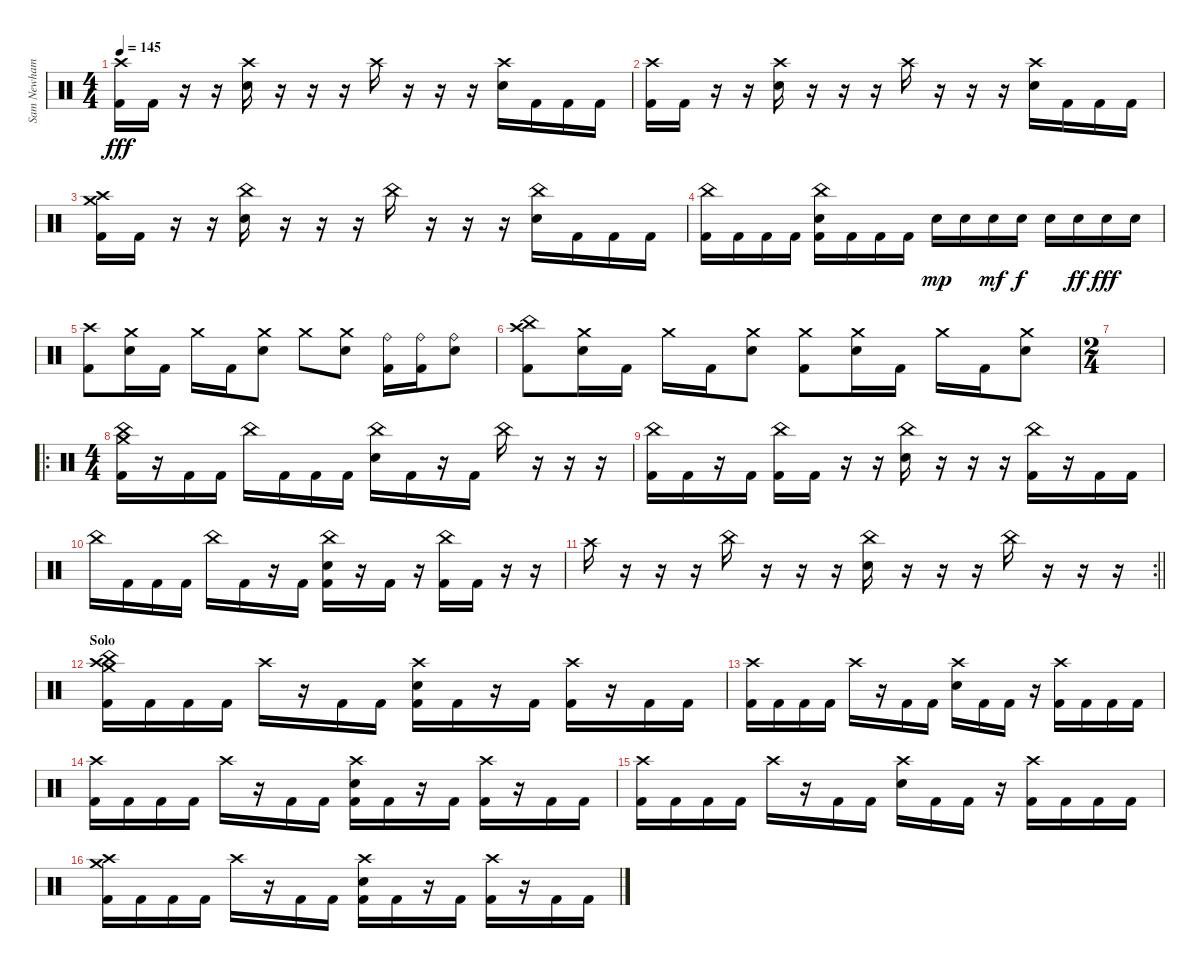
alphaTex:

\track ("Sam Newham" "Sam Newham") {instrument percussion}
\staff {score}
\articulation defaults
\ts (4 4)
\tempo 145
\clef neutral
\ks c
("Crash high (hit)" "Kick (hit) 2").16{dy fff} "Kick (hit) 2".16 r.16 r.16 ("Crash high (hit)" "Electric Snare (hit)").16 r.16 r.16 r.16 "Crash high (hit)".16 r.16 r.16 r.16 ("Crash high (hit)" "Electric Snare (hit)").16 "Kick (hit) 2".16 "Kick (hit) 2".16 "Kick (hit) 2".16 |
("Crash high (hit)" "Kick (hit) 2").16 "Kick (hit) 2".16 r.16 r.16 ("Crash high (hit)" "Electric Snare (hit)").16 r.16 r.16 r.16 "Crash high (hit)".16 r.16 r.16 r.16 ("Crash high (hit)" "Electric Snare (hit)").16 "Kick (hit) 2".16 "Kick (hit) 2".16 "Kick (hit) 2".16 |
("Crash medium (hit)" "Crash high (hit)" "Kick (hit) 2").16 "Kick (hit) 2".16 r.16 r.16 ("China (hit)" "Electric Snare (hit)").16 r.16 r.16 r.16 "China (hit)".16 r.16 r.16 r.16 ("China (hit)" "Electric Snare (hit)").16 "Kick (hit) 2".16 "Kick (hit) 2".16 "Kick (hit) 2".16 |
("China (hit)" "Kick (hit) 2").16 "Kick (hit) 2".16 "Kick (hit) 2".16 "Kick (hit) 2".16 ("China (hit)" "Electric Snare (hit)" "Kick (hit) 2").16 "Kick (hit) 2".16 "Kick (hit) 2".16 "Kick (hit) 2".16 "Electric Snare (hit)".16{dy mp} "Electric Snare (hit)".16 "Electric Snare (hit)".16{dy mf} "Electric Snare (hit)".16{dy f} "Electric Snare (hit)".16 "Electric Snare (hit)".16{dy ff} "Electric Snare (hit)".16{dy fff} "Electric Snare (hit)".16 |
("Crash high (hit)" "Kick (hit) 2").8 ("Crash medium (hit)" "Electric Snare (hit)").16 "Kick (hit) 2".16 "Crash medium (hit)".16 "Kick (hit) 2".16 ("Crash medium (hit)" "Electric Snare (hit)").8 "Crash medium (hit)".8 ("Crash medium (hit)" "Electric Snare (hit)").8 ("Ride (bell)" "Kick (hit) 2").16 ("Ride (bell)" "Kick (hit) 2").16 ("Ride (bell)" "Electric Snare (hit)").8 |
("China (hit)" "Crash high (hit)" "Kick (hit) 2").8 ("Crash medium (hit)" "Electric Snare (hit)").16 "Kick (hit) 2".16 "Crash medium (hit)".16 "Kick (hit) 2".16 ("Crash medium (hit)" "Electric Snare (hit)").8 ("Crash medium (hit)" "Kick (hit) 2").8 ("Crash medium (hit)" "Electric Snare (hit)").16 "Kick (hit) 2".16 "Crash medium (hit)".16 "Kick (hit) 2".16 ("Crash medium (hit)" "Electric Snare (hit)").8 |
\ts (2 4)
|
\ro
\ts (4 4)
("Crash medium (hit)" "China (hit)" "Kick (hit) 2").16 r.16 "Kick (hit) 2".16 "Kick (hit) 2".16 "China (hit)".16 "Kick (hit) 2".16 "Kick (hit) 2".16 "Kick (hit) 2".16 ("China (hit)" "Electric Snare (hit)").16 "Kick (hit) 2".16 r.16 "Kick (hit) 2".16 "China (hit)".16 r.16 r.16 r.16 |
("China (hit)" "Kick (hit) 2").16 "Kick (hit) 2".16 r.16 "Kick (hit) 2".16 ("China (hit)" "Kick (hit) 2").16 "Kick (hit) 2".16 r.16 r.16 ("China (hit)" "Electric Snare (hit)").16 r.16 r.16 r.16 ("China (hit)" "Kick (hit) 2").16 r.16 "Kick (hit) 2".16 "Kick (hit) 2".16 |
"China (hit)".16 "Kick (hit) 2".16 "Kick (hit) 2".16 "Kick (hit) 2".16 "China (hit)".16 "Kick (hit) 2".16 r.16 "Kick (hit) 2".16 ("China (hit)" "Electric Snare (hit)" "Kick (hit) 2").16 r.16 "Kick (hit) 2".16 r.16 ("China (hit)" "Kick (hit) 2").16 "Kick (hit) 2".16 r.16 r.16 |
\rc 2
\barLineRight lightlight "Crash high (hit)".16
r.16 r.16 r.16 "China (hit)".16 r.16 r.16 r.16 ("China (hit)" "Electric Snare (hit)").16 r.16 r.16 r.16 "China (hit)".16 r.16 r.16 r.16 |
\section ("" "Solo")
("Crash high (hit)" "Crash medium (hit)" "China (hit)" "Kick (hit) 2").16 "Kick (hit) 2".16 "Kick (hit) 2".16 "Kick (hit) 2".16 "Crash high (hit)".16 r.16 "Kick (hit) 2".16 "Kick (hit) 2".16 ("Crash high (hit)" "Electric Snare (hit)" "Kick (hit) 2").16 "Kick (hit) 2".16 r.16 "Kick (hit) 2".16 ("Crash high (hit)" "Kick (hit) 2").16 r.16 "Kick (hit) 2".16 "Kick (hit) 2".16 |
("Crash high (hit)" "Kick (hit) 2").16 "Kick (hit) 2".16 "Kick (hit) 2".16 "Kick (hit) 2".16 "Crash high (hit)".16 r.16 "Kick (hit) 2".16 "Kick (hit) 2".16 ("Crash high (hit)" "Electric Snare (hit)").16 "Kick (hit) 2".16 "Kick (hit) 2".16 r.16 ("Crash high (hit)" "Kick (hit) 2").16 "Kick (hit) 2".16 "Kick (hit) 2".16 "Kick (hit) 2".16 |
("Crash high (hit)" "Kick (hit) 2").16 "Kick (hit) 2".16 "Kick (hit) 2".16 "Kick (hit) 2".16 "Crash high (hit)".16 r.16 "Kick (hit) 2".16 "Kick (hit) 2".16 ("Crash high (hit)" "Electric Snare (hit)" "Kick (hit) 2").16 "Kick (hit) 2".16 r.16 "Kick (hit) 2".16 ("Crash high (hit)" "Kick (hit) 2").16 r.16 "Kick (hit) 2".16 "Kick (hit) 2".16 |
("Crash high (hit)" "Kick (hit) 2").16 "Kick (hit) 2".16 "Kick (hit) 2".16 "Kick (hit) 2".16 "Crash high (hit)".16 r.16 "Kick (hit) 2".16 "Kick (hit) 2".16 ("Crash high (hit)" "Electric Snare (hit)").16 "Kick (hit) 2".16 "Kick (hit) 2".16 r.16 ("Crash high (hit)" "Kick (hit) 2").16 "Kick (hit) 2".16 "Kick (hit) 2".16 "Kick (hit) 2".16 |
("Crash high (hit)" "Crash medium (hit)" "Kick (hit) 2").16 "Kick (hit) 2".16 "Kick (hit) 2".16 "Kick (hit) 2".16 "Crash high (hit)".16 r.16 "Kick (hit) 2".16 "Kick (hit) 2".16 ("Crash high (hit)" "Electric Snare (hit)" "Kick (hit) 2").16 "Kick (hit) 2".16 r.16 "Kick (hit) 2".16 ("Crash high (hit)" "Kick (hit) 2").16 r.16 "Kick (hit) 2".16 "Kick (hit) 2".16
